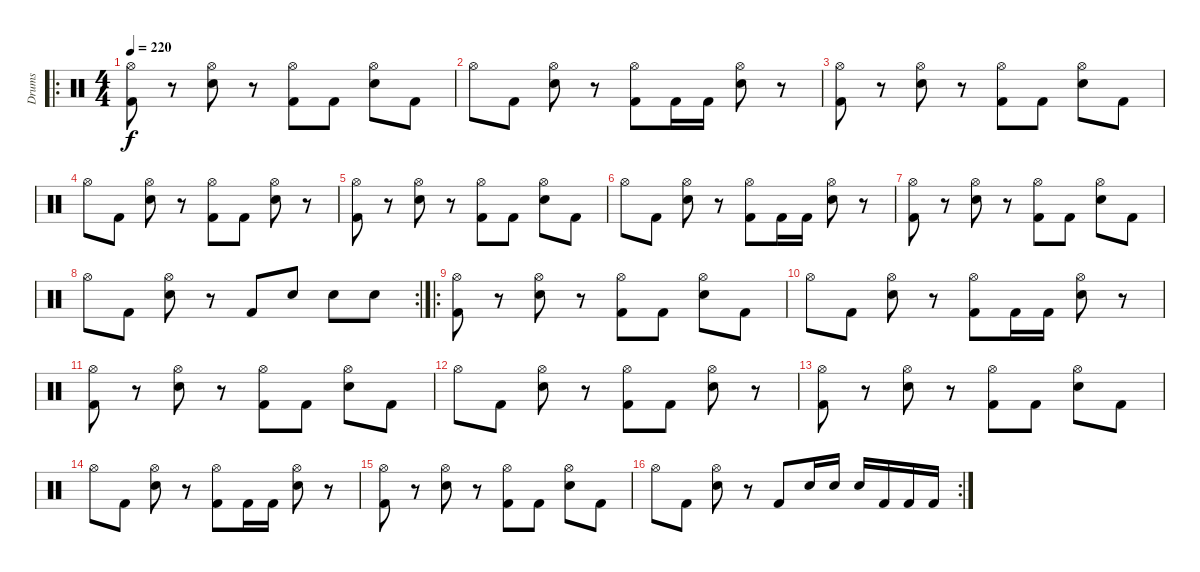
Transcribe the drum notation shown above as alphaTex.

\track ("Drums" "Drums") {instrument percussion}
\staff {score}
\articulation defaults
\ro
\ts (4 4)
\tempo 220
\clef neutral
\ks c
("Kick (hit) 2" "Hi-Hat (open)").8{dy f} r.8 ("Snare (hit) 2" "Hi-Hat (open)").8 r.8 ("Kick (hit) 2" "Hi-Hat (open)").8 "Kick (hit) 2".8 ("Snare (hit) 2" "Hi-Hat (open)").8 "Kick (hit) 2".8 |
"Hi-Hat (open)".8 "Kick (hit) 2".8 ("Snare (hit) 2" "Hi-Hat (open)").8 r.8 ("Kick (hit) 2" "Hi-Hat (open)").8 "Kick (hit) 2".16 "Kick (hit) 2".16 ("Snare (hit) 2" "Hi-Hat (open)").8 r.8 |
("Kick (hit) 2" "Hi-Hat (open)").8 r.8 ("Snare (hit) 2" "Hi-Hat (open)").8 r.8 ("Kick (hit) 2" "Hi-Hat (open)").8 "Kick (hit) 2".8 ("Snare (hit) 2" "Hi-Hat (open)").8 "Kick (hit) 2".8 |
"Hi-Hat (open)".8 "Kick (hit) 2".8 ("Snare (hit) 2" "Hi-Hat (open)").8 r.8 ("Kick (hit) 2" "Hi-Hat (open)").8 "Kick (hit) 2".8 ("Snare (hit) 2" "Hi-Hat (open)").8 r.8 |
("Kick (hit) 2" "Hi-Hat (open)").8 r.8 ("Snare (hit) 2" "Hi-Hat (open)").8 r.8 ("Kick (hit) 2" "Hi-Hat (open)").8 "Kick (hit) 2".8 ("Snare (hit) 2" "Hi-Hat (open)").8 "Kick (hit) 2".8 |
"Hi-Hat (open)".8 "Kick (hit) 2".8 ("Snare (hit) 2" "Hi-Hat (open)").8 r.8 ("Kick (hit) 2" "Hi-Hat (open)").8 "Kick (hit) 2".16 "Kick (hit) 2".16 ("Snare (hit) 2" "Hi-Hat (open)").8 r.8 |
("Kick (hit) 2" "Hi-Hat (open)").8 r.8 ("Snare (hit) 2" "Hi-Hat (open)").8 r.8 ("Kick (hit) 2" "Hi-Hat (open)").8 "Kick (hit) 2".8 ("Snare (hit) 2" "Hi-Hat (open)").8 "Kick (hit) 2".8 |
\rc 2 "Hi-Hat (open)".8 "Kick (hit) 2".8
("Snare (hit) 2" "Hi-Hat (open)").8 r.8 "Kick (hit) 2".8 "Snare (hit) 2".8 "Snare (hit) 2".8 "Snare (hit) 2".8 |
\ro
("Kick (hit) 2" "Hi-Hat (open)").8 r.8 ("Snare (hit) 2" "Hi-Hat (open)").8 r.8 ("Kick (hit) 2" "Hi-Hat (open)").8 "Kick (hit) 2".8 ("Snare (hit) 2" "Hi-Hat (open)").8 "Kick (hit) 2".8 |
"Hi-Hat (open)".8 "Kick (hit) 2".8 ("Snare (hit) 2" "Hi-Hat (open)").8 r.8 ("Kick (hit) 2" "Hi-Hat (open)").8 "Kick (hit) 2".16 "Kick (hit) 2".16 ("Snare (hit) 2" "Hi-Hat (open)").8 r.8 |
("Kick (hit) 2" "Hi-Hat (open)").8 r.8 ("Snare (hit) 2" "Hi-Hat (open)").8 r.8 ("Kick (hit) 2" "Hi-Hat (open)").8 "Kick (hit) 2".8 ("Snare (hit) 2" "Hi-Hat (open)").8 "Kick (hit) 2".8 |
"Hi-Hat (open)".8 "Kick (hit) 2".8 ("Snare (hit) 2" "Hi-Hat (open)").8 r.8 ("Kick (hit) 2" "Hi-Hat (open)").8 "Kick (hit) 2".8 ("Snare (hit) 2" "Hi-Hat (open)").8 r.8 |
("Kick (hit) 2" "Hi-Hat (open)").8 r.8 ("Snare (hit) 2" "Hi-Hat (open)").8 r.8 ("Kick (hit) 2" "Hi-Hat (open)").8 "Kick (hit) 2".8 ("Snare (hit) 2" "Hi-Hat (open)").8 "Kick (hit) 2".8 |
"Hi-Hat (open)".8 "Kick (hit) 2".8 ("Snare (hit) 2" "Hi-Hat (open)").8 r.8 ("Kick (hit) 2" "Hi-Hat (open)").8 "Kick (hit) 2".16 "Kick (hit) 2".16 ("Snare (hit) 2" "Hi-Hat (open)").8 r.8 |
("Kick (hit) 2" "Hi-Hat (open)").8 r.8 ("Snare (hit) 2" "Hi-Hat (open)").8 r.8 ("Kick (hit) 2" "Hi-Hat (open)").8 "Kick (hit) 2".8 ("Snare (hit) 2" "Hi-Hat (open)").8 "Kick (hit) 2".8 |
\rc 2 "Hi-Hat (open)".8 "Kick (hit) 2".8
("Snare (hit) 2" "Hi-Hat (open)").8 r.8 "Kick (hit) 2".8 "Snare (hit) 2".16 "Snare (hit) 2".16 "Snare (hit) 2".16 "Kick (hit) 2".16 "Kick (hit) 2".16 "Kick (hit) 2".16
